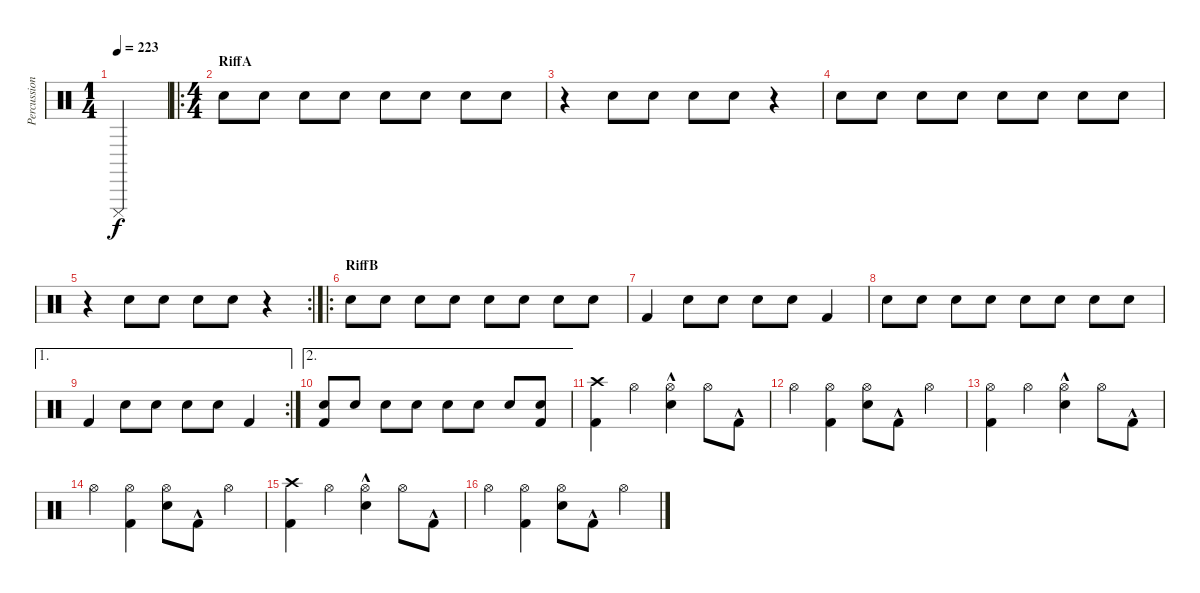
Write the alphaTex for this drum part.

\track ("Percussion" "Percussion") {instrument percussion}
\staff {score}
\articulation defaults
\ts (1 4)
\tempo 223
\clef neutral
\ks c "Cuica (mute)".4{dy f}
|
\ro
\ts (4 4)
\section ("" "RiffA")
"Electric Snare (hit)".8 "Electric Snare (hit)".8 "Electric Snare (hit)".8 "Electric Snare (hit)".8 "Electric Snare (hit)".8 "Electric Snare (hit)".8 "Electric Snare (hit)".8 "Electric Snare (hit)".8 |
r.4 "Electric Snare (hit)".8 "Electric Snare (hit)".8 "Electric Snare (hit)".8 "Electric Snare (hit)".8 r.4 |
"Electric Snare (hit)".8 "Electric Snare (hit)".8 "Electric Snare (hit)".8 "Electric Snare (hit)".8 "Electric Snare (hit)".8 "Electric Snare (hit)".8 "Electric Snare (hit)".8 "Electric Snare (hit)".8 |
\rc 2
r.4 "Electric Snare (hit)".8 "Electric Snare (hit)".8 "Electric Snare (hit)".8 "Electric Snare (hit)".8 r.4 |
\ro
\section ("" "RiffB")
"Electric Snare (hit)".8 "Electric Snare (hit)".8 "Electric Snare (hit)".8 "Electric Snare (hit)".8 "Electric Snare (hit)".8 "Electric Snare (hit)".8 "Electric Snare (hit)".8 "Electric Snare (hit)".8 |
"Kick (hit) 2".4 "Electric Snare (hit)".8 "Electric Snare (hit)".8 "Electric Snare (hit)".8 "Electric Snare (hit)".8 "Kick (hit) 2".4 |
"Electric Snare (hit)".8 "Electric Snare (hit)".8 "Electric Snare (hit)".8 "Electric Snare (hit)".8 "Electric Snare (hit)".8 "Electric Snare (hit)".8 "Electric Snare (hit)".8 "Electric Snare (hit)".8 |
\ae 1
\rc 2 "Kick (hit) 2".4 "Electric Snare (hit)".8 "Electric Snare (hit)".8 "Electric Snare (hit)".8 "Electric Snare (hit)".8 "Kick (hit) 2".4
|
\ae 2
("Electric Snare (hit)" "Kick (hit) 2").8 "Electric Snare (hit)".8 "Electric Snare (hit)".8 "Electric Snare (hit)".8 "Electric Snare (hit)".8 "Electric Snare (hit)".8 "Electric Snare (hit)".8 ("Electric Snare (hit)" "Kick (hit) 2").8 |
("Crash high (hit)" "Kick (hit) 2").4 "Hi-Hat (open)".4 ("Hi-Hat (open)" "Electric Snare (hit)"{hac}).4 "Hi-Hat (open)".8 "Kick (hit) 2"{hac}.8 |
"Hi-Hat (open)".4 ("Hi-Hat (open)" "Kick (hit) 2").4 ("Hi-Hat (open)" "Electric Snare (hit)").8 "Kick (hit) 2"{hac}.8 "Hi-Hat (open)".4 |
("Hi-Hat (open)" "Kick (hit) 2").4 "Hi-Hat (open)".4 ("Hi-Hat (open)" "Electric Snare (hit)"{hac}).4 "Hi-Hat (open)".8 "Kick (hit) 2"{hac}.8 |
"Hi-Hat (open)".4 ("Hi-Hat (open)" "Kick (hit) 2").4 ("Hi-Hat (open)" "Electric Snare (hit)").8 "Kick (hit) 2"{hac}.8 "Hi-Hat (open)".4 |
("Crash high (hit)" "Kick (hit) 2").4 "Hi-Hat (open)".4 ("Hi-Hat (open)" "Electric Snare (hit)"{hac}).4 "Hi-Hat (open)".8 "Kick (hit) 2"{hac}.8 |
"Hi-Hat (open)".4 ("Hi-Hat (open)" "Kick (hit) 2").4 ("Hi-Hat (open)" "Electric Snare (hit)").8 "Kick (hit) 2"{hac}.8 "Hi-Hat (open)".4
